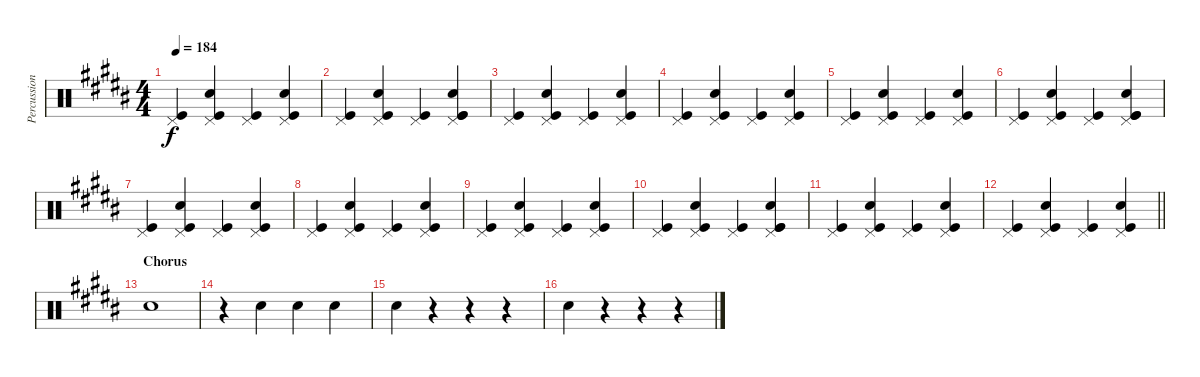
\track ("Percussion" "Percussion") {instrument percussion}
\staff {score}
\articulation defaults
\ts (4 4)
\tempo 184
\clef neutral
\ks b
("Pedal Hi-Hat (hit)" "Kick (hit)").4{dy f} ("Kick (hit)" "Pedal Hi-Hat (hit)" "Snare (hit) 2").4 ("Kick (hit)" "Pedal Hi-Hat (hit)").4 ("Kick (hit)" "Pedal Hi-Hat (hit)" "Snare (hit) 2").4 |
("Kick (hit)" "Pedal Hi-Hat (hit)").4 ("Kick (hit)" "Pedal Hi-Hat (hit)" "Snare (hit) 2").4 ("Kick (hit)" "Pedal Hi-Hat (hit)").4 ("Kick (hit)" "Pedal Hi-Hat (hit)" "Kick (hit)" "Snare (hit) 2").4 |
("Kick (hit)" "Pedal Hi-Hat (hit)").4 ("Kick (hit)" "Pedal Hi-Hat (hit)" "Snare (hit) 2").4 ("Kick (hit)" "Pedal Hi-Hat (hit)").4 ("Kick (hit)" "Pedal Hi-Hat (hit)" "Snare (hit) 2").4 |
("Kick (hit)" "Pedal Hi-Hat (hit)").4 ("Kick (hit)" "Pedal Hi-Hat (hit)" "Snare (hit) 2").4 ("Kick (hit)" "Pedal Hi-Hat (hit)").4 ("Kick (hit)" "Pedal Hi-Hat (hit)" "Snare (hit) 2").4 |
("Pedal Hi-Hat (hit)" "Kick (hit)").4 ("Kick (hit)" "Pedal Hi-Hat (hit)" "Snare (hit) 2").4 ("Kick (hit)" "Pedal Hi-Hat (hit)").4 ("Kick (hit)" "Pedal Hi-Hat (hit)" "Snare (hit) 2").4 |
("Kick (hit)" "Pedal Hi-Hat (hit)").4 ("Kick (hit)" "Pedal Hi-Hat (hit)" "Snare (hit) 2").4 ("Kick (hit)" "Pedal Hi-Hat (hit)").4 ("Kick (hit)" "Pedal Hi-Hat (hit)" "Kick (hit)" "Snare (hit) 2").4 |
("Kick (hit)" "Pedal Hi-Hat (hit)").4 ("Kick (hit)" "Pedal Hi-Hat (hit)" "Snare (hit) 2").4 ("Kick (hit)" "Pedal Hi-Hat (hit)").4 ("Kick (hit)" "Pedal Hi-Hat (hit)" "Snare (hit) 2").4 |
("Kick (hit)" "Pedal Hi-Hat (hit)").4 ("Kick (hit)" "Pedal Hi-Hat (hit)" "Snare (hit) 2").4 ("Kick (hit)" "Pedal Hi-Hat (hit)").4 ("Kick (hit)" "Pedal Hi-Hat (hit)" "Snare (hit) 2").4 |
("Pedal Hi-Hat (hit)" "Kick (hit)").4 ("Kick (hit)" "Pedal Hi-Hat (hit)" "Snare (hit) 2").4 ("Kick (hit)" "Pedal Hi-Hat (hit)").4 ("Kick (hit)" "Pedal Hi-Hat (hit)" "Snare (hit) 2").4 |
("Kick (hit)" "Pedal Hi-Hat (hit)").4 ("Kick (hit)" "Pedal Hi-Hat (hit)" "Snare (hit) 2").4 ("Kick (hit)" "Pedal Hi-Hat (hit)").4 ("Kick (hit)" "Pedal Hi-Hat (hit)" "Kick (hit)" "Snare (hit) 2").4 |
("Kick (hit)" "Pedal Hi-Hat (hit)").4 ("Kick (hit)" "Pedal Hi-Hat (hit)" "Snare (hit) 2").4 ("Kick (hit)" "Pedal Hi-Hat (hit)").4 ("Kick (hit)" "Pedal Hi-Hat (hit)" "Snare (hit) 2").4 |
\barLineRight lightlight
("Kick (hit)" "Pedal Hi-Hat (hit)").4 ("Kick (hit)" "Pedal Hi-Hat (hit)" "Snare (hit) 2").4 ("Kick (hit)" "Pedal Hi-Hat (hit)").4 ("Kick (hit)" "Pedal Hi-Hat (hit)" "Snare (hit) 2").4 |
\section ("" "Chorus")
"Snare (hit) 2".1 |
r.4 "Snare (hit) 2".4 "Snare (hit) 2".4 "Snare (hit) 2".4 |
"Snare (hit) 2".4 r.4 r.4 r.4 |
"Snare (hit) 2".4 r.4 r.4 r.4
